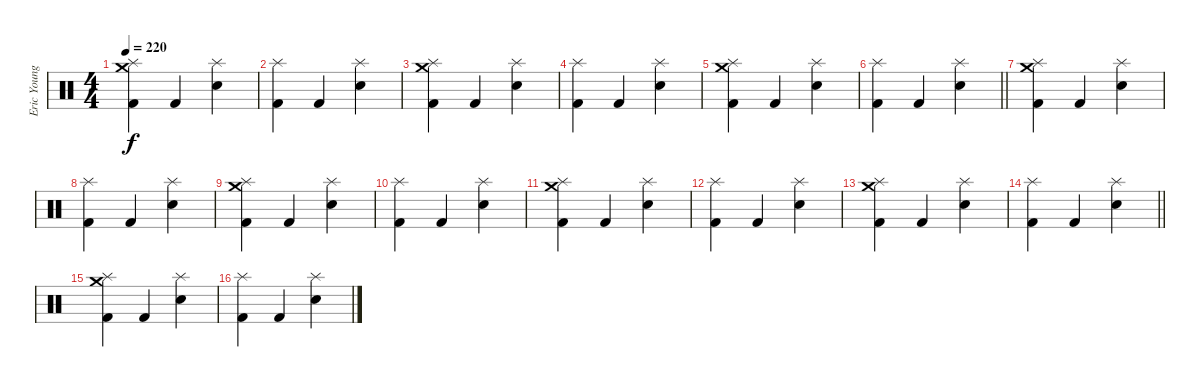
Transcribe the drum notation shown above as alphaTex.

\track ("Eric Young (Drums)" "Eric Young") {instrument percussion}
\staff {score}
\articulation defaults
\ts (4 4)
\tempo 220
\clef neutral
\ks c
("Splash (hit)" "Kick (hit) 2" "Crash medium (hit)").4{dy f} "Kick (hit) 2".4 ("Splash (hit)" "Snare (hit) 2").4 |
("Splash (hit)" "Kick (hit) 2").4 "Kick (hit) 2".4 ("Splash (hit)" "Snare (hit) 2").4 |
("Splash (hit)" "Kick (hit) 2" "Crash medium (hit)").4 "Kick (hit) 2".4 ("Splash (hit)" "Snare (hit) 2").4 |
("Splash (hit)" "Kick (hit) 2").4 "Kick (hit) 2".4 ("Splash (hit)" "Snare (hit) 2").4 |
("Splash (hit)" "Kick (hit) 2" "Crash medium (hit)").4 "Kick (hit) 2".4 ("Splash (hit)" "Snare (hit) 2").4 |
\barLineRight lightlight
("Splash (hit)" "Kick (hit) 2").4 "Kick (hit) 2".4 ("Splash (hit)" "Snare (hit) 2").4 |
("Splash (hit)" "Kick (hit) 2" "Crash medium (hit)").4 "Kick (hit) 2".4 ("Splash (hit)" "Snare (hit) 2").4 |
("Splash (hit)" "Kick (hit) 2").4 "Kick (hit) 2".4 ("Splash (hit)" "Snare (hit) 2").4 |
("Splash (hit)" "Kick (hit) 2" "Crash medium (hit)").4 "Kick (hit) 2".4 ("Splash (hit)" "Snare (hit) 2").4 |
("Splash (hit)" "Kick (hit) 2").4 "Kick (hit) 2".4 ("Splash (hit)" "Snare (hit) 2").4 |
("Splash (hit)" "Kick (hit) 2" "Crash medium (hit)").4 "Kick (hit) 2".4 ("Splash (hit)" "Snare (hit) 2").4 |
("Splash (hit)" "Kick (hit) 2").4 "Kick (hit) 2".4 ("Splash (hit)" "Snare (hit) 2").4 |
("Splash (hit)" "Kick (hit) 2" "Crash medium (hit)").4 "Kick (hit) 2".4 ("Splash (hit)" "Snare (hit) 2").4 |
\barLineRight lightlight
("Splash (hit)" "Kick (hit) 2").4 "Kick (hit) 2".4 ("Splash (hit)" "Snare (hit) 2").4 |
("Splash (hit)" "Kick (hit) 2" "Crash medium (hit)").4 "Kick (hit) 2".4 ("Splash (hit)" "Snare (hit) 2").4 |
("Splash (hit)" "Kick (hit) 2").4 "Kick (hit) 2".4 ("Splash (hit)" "Snare (hit) 2").4
